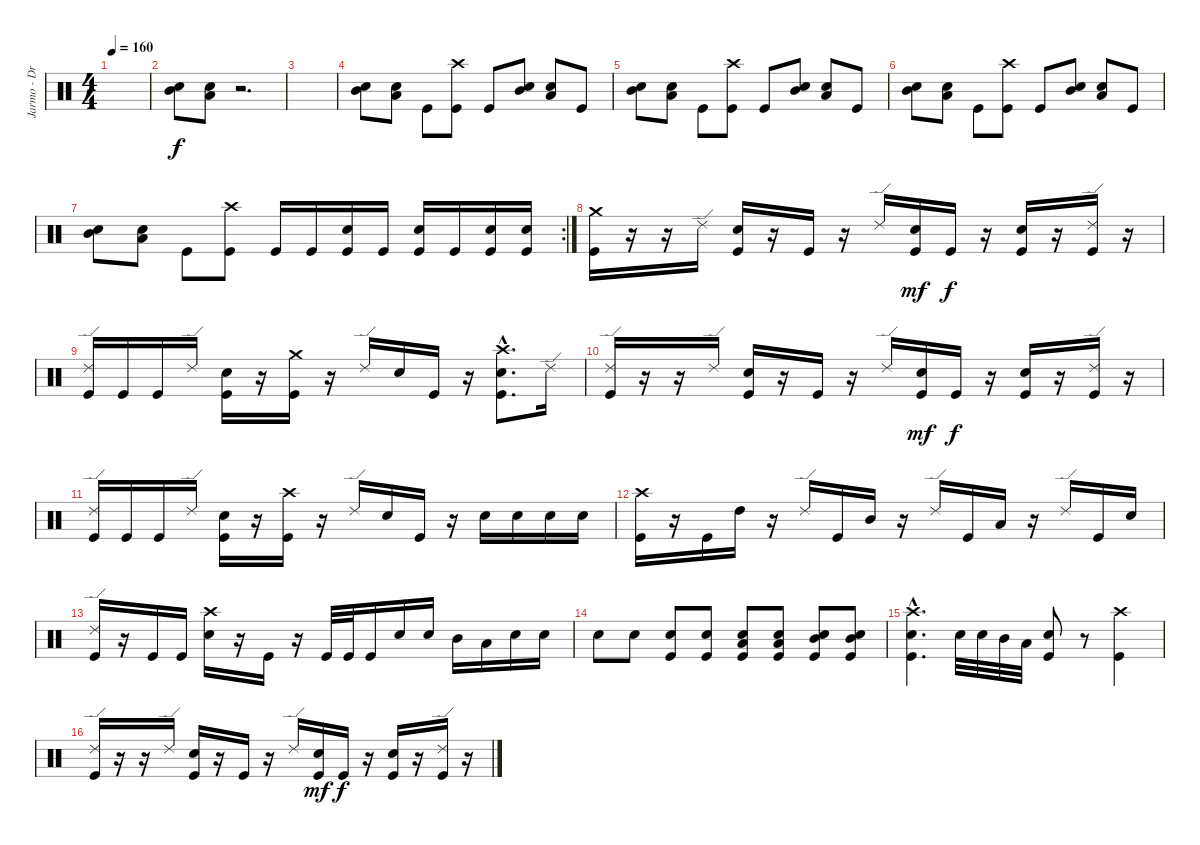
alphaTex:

\track ("Jarmo - Drums" "Jarmo - Dr") {instrument percussion}
\staff {score}
\articulation defaults
\ts (4 4)
\tempo 160
\clef neutral
\ks c
|
("Mid Tom (hit)" "Electric Snare (hit)").8 ("Low Tom (hit)" "Electric Snare (hit)").8 r.2{d} |
|
("Mid Tom (hit)" "Electric Snare (hit)").8 ("Low Tom (hit)" "Electric Snare (hit)").8 "Kick (hit)".8 ("Kick (hit)" "Crash high (hit)").8 "Kick (hit)".8 ("Mid Tom (hit)" "Electric Snare (hit)").8 ("Low Tom (hit)" "Electric Snare (hit)").8 "Kick (hit)".8 |
("Mid Tom (hit)" "Electric Snare (hit)").8 ("Low Tom (hit)" "Electric Snare (hit)").8 "Kick (hit)".8 ("Kick (hit)" "Crash high (hit)").8 "Kick (hit)".8 ("Mid Tom (hit)" "Electric Snare (hit)").8 ("Low Tom (hit)" "Electric Snare (hit)").8 "Kick (hit)".8 |
("Mid Tom (hit)" "Electric Snare (hit)").8 ("Low Tom (hit)" "Electric Snare (hit)").8 "Kick (hit)".8 ("Kick (hit)" "Crash high (hit)").8 "Kick (hit)".8 ("Mid Tom (hit)" "Electric Snare (hit)").8 ("Low Tom (hit)" "Electric Snare (hit)").8 "Kick (hit)".8 |
\rc 2
("Mid Tom (hit)" "Electric Snare (hit)").8 ("Low Tom (hit)" "Electric Snare (hit)").8 "Kick (hit)".8 ("Kick (hit)" "Crash high (hit)").8 "Kick (hit)".16 "Kick (hit)".16 ("Kick (hit)" "Electric Snare (hit)").16 "Kick (hit)".16 ("Kick (hit)" "Electric Snare (hit)").16 "Kick (hit)".16 ("Kick (hit)" "Electric Snare (hit)").16 ("Kick (hit)" "Electric Snare (hit)").16 |
("Kick (hit)" "Crash medium (hit)").16 r.16 r.16 "Ride (edge) 2".16 ("Kick (hit)" "Electric Snare (hit)").16 r.16 "Kick (hit)".16 r.16 "Ride (edge) 2".16 ("Kick (hit)" "Electric Snare (hit)").16{dy mf} "Kick (hit)".16{dy f} r.16 ("Kick (hit)" "Electric Snare (hit)").16 r.16 ("Kick (hit)" "Ride (edge) 2").16 r.16 |
("Kick (hit)" "Ride (edge) 2").16 "Kick (hit)".16 "Kick (hit)".16 "Ride (edge) 2".16 ("Kick (hit)" "Electric Snare (hit)").16 r.16 ("Kick (hit)" "Crash medium (hit)").16 r.16 "Ride (edge) 2".16 "Electric Snare (hit)".16 "Kick (hit)".16 r.16 ("Kick (hit)"{hac} "Electric Snare (hit)"{hac} "Crash high (hit)"{hac}).8{d} "Ride (edge) 2".16 |
("Kick (hit)" "Ride (edge) 2").16 r.16 r.16 "Ride (edge) 2".16 ("Kick (hit)" "Electric Snare (hit)").16 r.16 "Kick (hit)".16 r.16 "Ride (edge) 2".16 ("Kick (hit)" "Electric Snare (hit)").16{dy mf} "Kick (hit)".16{dy f} r.16 ("Kick (hit)" "Electric Snare (hit)").16 r.16 ("Kick (hit)" "Ride (edge) 2").16 r.16 |
("Kick (hit)" "Ride (edge) 2").16 "Kick (hit)".16 "Kick (hit)".16 "Ride (edge) 2".16 ("Kick (hit)" "Electric Snare (hit)").16 r.16 ("Kick (hit)" "Crash high (hit)").16 r.16 "Ride (edge) 2".16 "Electric Snare (hit)".16 "Kick (hit)".16 r.16 "Electric Snare (hit)".16 "Electric Snare (hit)".16 "Electric Snare (hit)".16 "Electric Snare (hit)".16 |
("Kick (hit)" "Crash high (hit)").16 r.16 "Kick (hit)".16 "High Tom (hit)".16 r.16 "Ride (edge) 2".16 "Kick (hit)".16 "Mid Tom (hit)".16 r.16 "Ride (edge) 2".16 "Kick (hit)".16 "Low Tom (hit)".16 r.16 "Ride (edge) 2".16 "Kick (hit)".16 "Electric Snare (hit)".16 |
("Kick (hit)" "Ride (edge) 2").16 r.16 "Kick (hit)".16 "Kick (hit)".16 ("Electric Snare (hit)" "Crash high (hit)").16 r.16 "Kick (hit)".16 r.16 "Kick (hit)".32 "Kick (hit)".32 "Kick (hit)".16 "Electric Snare (hit)".16 "Electric Snare (hit)".16 "Mid Tom (hit)".16 "Low Tom (hit)".16 "Electric Snare (hit)".16 "Electric Snare (hit)".16 |
"Electric Snare (hit)".8 "Electric Snare (hit)".8 ("Kick (hit)" "Electric Snare (hit)").8 ("Kick (hit)" "Electric Snare (hit)").8 ("Kick (hit)" "Electric Snare (hit)" "Low Tom (hit)").8 ("Kick (hit)" "Electric Snare (hit)" "Low Tom (hit)").8 ("Kick (hit)" "Electric Snare (hit)" "Mid Tom (hit)").8 ("Kick (hit)" "Electric Snare (hit)" "Mid Tom (hit)").8 |
("Kick (hit)"{hac} "Electric Snare (hit)"{hac} "Crash high (hit)"{hac}).4{d} "Electric Snare (hit)".32 "Electric Snare (hit)".32 "Mid Tom (hit)".32 "Low Tom (hit)".32 ("Kick (hit)" "Electric Snare (hit)").8 r.8 ("Kick (hit)" "Crash high (hit)").4 |
("Kick (hit)" "Ride (edge) 2").16 r.16 r.16 "Ride (edge) 2".16 ("Kick (hit)" "Electric Snare (hit)").16 r.16 "Kick (hit)".16 r.16 "Ride (edge) 2".16 ("Kick (hit)" "Electric Snare (hit)").16{dy mf} "Kick (hit)".16{dy f} r.16 ("Kick (hit)" "Electric Snare (hit)").16 r.16 ("Kick (hit)" "Ride (edge) 2").16 r.16
